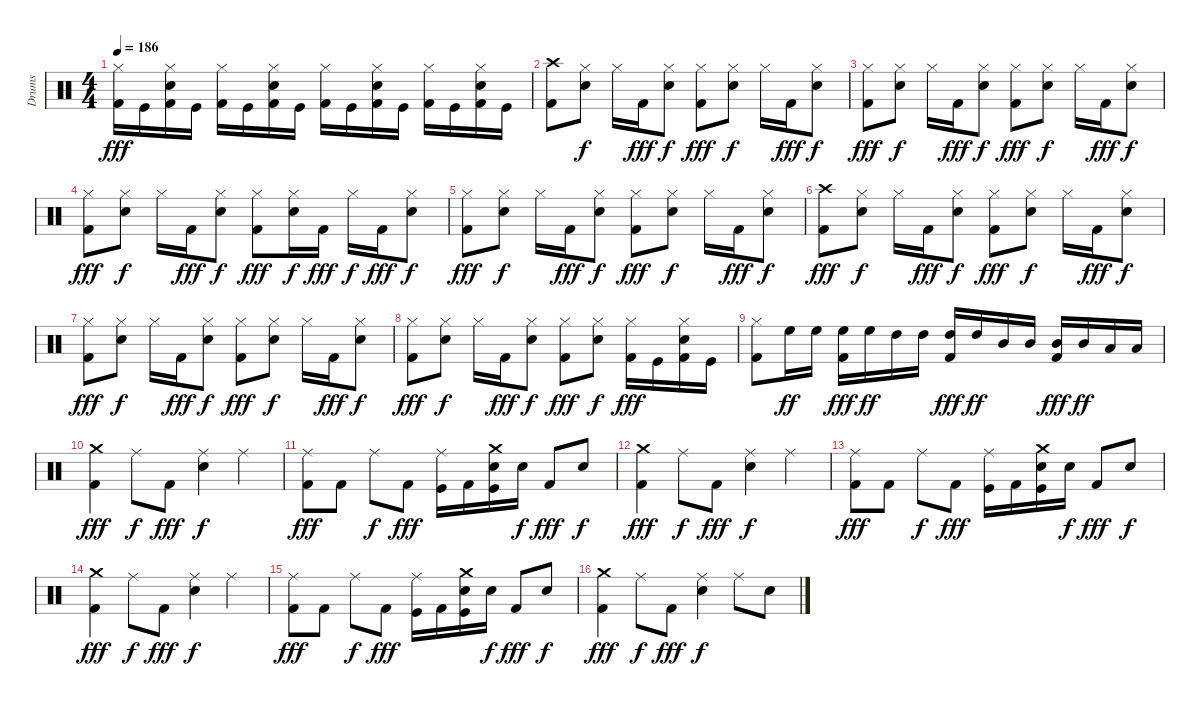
\track ("Drums" "Drums") {instrument percussion}
\staff {score}
\articulation defaults
\ts (4 4)
\tempo 186
\clef neutral
\ks c
("Hi-Hat (closed)" "Kick (hit) 2").16{dy fff} "Kick (hit)".16 ("Hi-Hat (closed)" "Electric Snare (hit)" "Kick (hit) 2").16 "Kick (hit)".16 ("Hi-Hat (closed)" "Kick (hit) 2").16 "Kick (hit)".16 ("Hi-Hat (closed)" "Electric Snare (hit)" "Kick (hit) 2").16 "Kick (hit)".16 ("Hi-Hat (closed)" "Kick (hit) 2").16 "Kick (hit)".16 ("Hi-Hat (closed)" "Electric Snare (hit)" "Kick (hit) 2").16 "Kick (hit)".16 ("Hi-Hat (closed)" "Kick (hit) 2").16 "Kick (hit)".16 ("Hi-Hat (closed)" "Electric Snare (hit)" "Kick (hit) 2").16 "Kick (hit)".16 |
("Crash high (hit)" "Kick (hit) 2").8 ("Hi-Hat (closed)" "Electric Snare (hit)").8{dy f} "Hi-Hat (closed)".16 "Kick (hit) 2".16{dy fff} ("Hi-Hat (closed)" "Electric Snare (hit)").8{dy f} ("Hi-Hat (closed)" "Kick (hit) 2").8{dy fff} ("Hi-Hat (closed)" "Electric Snare (hit)").8{dy f} "Hi-Hat (closed)".16 "Kick (hit) 2".16{dy fff} ("Hi-Hat (closed)" "Electric Snare (hit)").8{dy f} |
("Hi-Hat (closed)" "Kick (hit) 2").8{dy fff} ("Hi-Hat (closed)" "Electric Snare (hit)").8{dy f} "Hi-Hat (closed)".16 "Kick (hit) 2".16{dy fff} ("Hi-Hat (closed)" "Electric Snare (hit)").8{dy f} ("Hi-Hat (closed)" "Kick (hit) 2").8{dy fff} ("Hi-Hat (closed)" "Electric Snare (hit)").8{dy f} "Hi-Hat (closed)".16 "Kick (hit) 2".16{dy fff} ("Hi-Hat (closed)" "Electric Snare (hit)").8{dy f} |
("Hi-Hat (closed)" "Kick (hit) 2").8{dy fff} ("Hi-Hat (closed)" "Electric Snare (hit)").8{dy f} "Hi-Hat (closed)".16 "Kick (hit) 2".16{dy fff} ("Hi-Hat (closed)" "Electric Snare (hit)").8{dy f} ("Hi-Hat (closed)" "Kick (hit) 2").8{dy fff} ("Hi-Hat (closed)" "Electric Snare (hit)").16{dy f} "Kick (hit) 2".16{dy fff} "Hi-Hat (closed)".16{dy f} "Kick (hit) 2".16{dy fff} ("Hi-Hat (closed)" "Electric Snare (hit)").8{dy f} |
("Hi-Hat (closed)" "Kick (hit) 2").8{dy fff} ("Hi-Hat (closed)" "Electric Snare (hit)").8{dy f} "Hi-Hat (closed)".16 "Kick (hit) 2".16{dy fff} ("Hi-Hat (closed)" "Electric Snare (hit)").8{dy f} ("Hi-Hat (closed)" "Kick (hit) 2").8{dy fff} ("Hi-Hat (closed)" "Electric Snare (hit)").8{dy f} "Hi-Hat (closed)".16 "Kick (hit) 2".16{dy fff} ("Hi-Hat (closed)" "Electric Snare (hit)").8{dy f} |
("Crash high (hit)" "Kick (hit) 2").8{dy fff} ("Hi-Hat (closed)" "Electric Snare (hit)").8{dy f} "Hi-Hat (closed)".16 "Kick (hit) 2".16{dy fff} ("Hi-Hat (closed)" "Electric Snare (hit)").8{dy f} ("Hi-Hat (closed)" "Kick (hit) 2").8{dy fff} ("Hi-Hat (closed)" "Electric Snare (hit)").8{dy f} "Hi-Hat (closed)".16 "Kick (hit) 2".16{dy fff} ("Hi-Hat (closed)" "Electric Snare (hit)").8{dy f} |
("Hi-Hat (closed)" "Kick (hit) 2").8{dy fff} ("Hi-Hat (closed)" "Electric Snare (hit)").8{dy f} "Hi-Hat (closed)".16 "Kick (hit) 2".16{dy fff} ("Hi-Hat (closed)" "Electric Snare (hit)").8{dy f} ("Hi-Hat (closed)" "Kick (hit) 2").8{dy fff} ("Hi-Hat (closed)" "Electric Snare (hit)").8{dy f} "Hi-Hat (closed)".16 "Kick (hit) 2".16{dy fff} ("Hi-Hat (closed)" "Electric Snare (hit)").8{dy f} |
("Hi-Hat (closed)" "Kick (hit) 2").8{dy fff} ("Hi-Hat (closed)" "Electric Snare (hit)").8{dy f} "Hi-Hat (closed)".16 "Kick (hit) 2".16{dy fff} ("Hi-Hat (closed)" "Electric Snare (hit)").8{dy f} ("Hi-Hat (closed)" "Kick (hit) 2").8{dy fff} ("Hi-Hat (closed)" "Electric Snare (hit)").8{dy f} ("Hi-Hat (closed)" "Kick (hit) 2").16{dy fff} "Kick (hit)".16 ("Hi-Hat (closed)" "Electric Snare (hit)" "Kick (hit) 2").16 "Kick (hit)".16 |
("Hi-Hat (closed)" "Kick (hit) 2").8 "High Floor Tom (hit)".16{dy ff} "High Floor Tom (hit)".16 ("High Floor Tom (hit)" "Kick (hit) 2").16{dy fff} "High Floor Tom (hit)".16{dy ff} "High Tom (hit)".16 "High Tom (hit)".16 ("High Tom (hit)" "Kick (hit) 2").16{dy fff} "High Tom (hit)".16{dy ff} "Mid Tom (hit)".16 "Mid Tom (hit)".16 ("Mid Tom (hit)" "Kick (hit) 2").16{dy fff} "Mid Tom (hit)".16{dy ff} "Low Tom (hit)".16 "Low Tom (hit)".16 |
("Crash medium (hit)" "Kick (hit) 2").4{dy fff} "Ride (middle)".8{dy f} "Kick (hit) 2".8{dy fff} ("Ride (middle)" "Electric Snare (hit)").4{dy f} "Ride (middle)".4 |
("Ride (middle)" "Kick (hit) 2").8{dy fff} "Kick (hit) 2".8 "Ride (middle)".8{dy f} "Kick (hit) 2".8{dy fff} ("Ride (middle)" "Kick (hit)").16 "Kick (hit) 2".16 ("Crash medium (hit)" "Electric Snare (hit)" "Kick (hit)").16 "Electric Snare (hit)".16{dy f} "Kick (hit) 2".8{dy fff} "Electric Snare (hit)".8{dy f} |
("Crash medium (hit)" "Kick (hit) 2").4{dy fff} "Ride (middle)".8{dy f} "Kick (hit) 2".8{dy fff} ("Ride (middle)" "Electric Snare (hit)").4{dy f} "Ride (middle)".4 |
("Ride (middle)" "Kick (hit) 2").8{dy fff} "Kick (hit) 2".8 "Ride (middle)".8{dy f} "Kick (hit) 2".8{dy fff} ("Ride (middle)" "Kick (hit)").16 "Kick (hit) 2".16 ("Crash medium (hit)" "Electric Snare (hit)" "Kick (hit)").16 "Electric Snare (hit)".16{dy f} "Kick (hit) 2".8{dy fff} "Electric Snare (hit)".8{dy f} |
("Crash medium (hit)" "Kick (hit) 2").4{dy fff} "Ride (middle)".8{dy f} "Kick (hit) 2".8{dy fff} ("Ride (middle)" "Electric Snare (hit)").4{dy f} "Ride (middle)".4 |
("Ride (middle)" "Kick (hit) 2").8{dy fff} "Kick (hit) 2".8 "Ride (middle)".8{dy f} "Kick (hit) 2".8{dy fff} ("Ride (middle)" "Kick (hit)").16 "Kick (hit) 2".16 ("Crash medium (hit)" "Electric Snare (hit)" "Kick (hit)").16 "Electric Snare (hit)".16{dy f} "Kick (hit) 2".8{dy fff} "Electric Snare (hit)".8{dy f} |
("Crash medium (hit)" "Kick (hit) 2").4{dy fff} "Ride (middle)".8{dy f} "Kick (hit) 2".8{dy fff} ("Ride (middle)" "Electric Snare (hit)").4{dy f} "Ride (middle)".8 "Electric Snare (hit)".8
